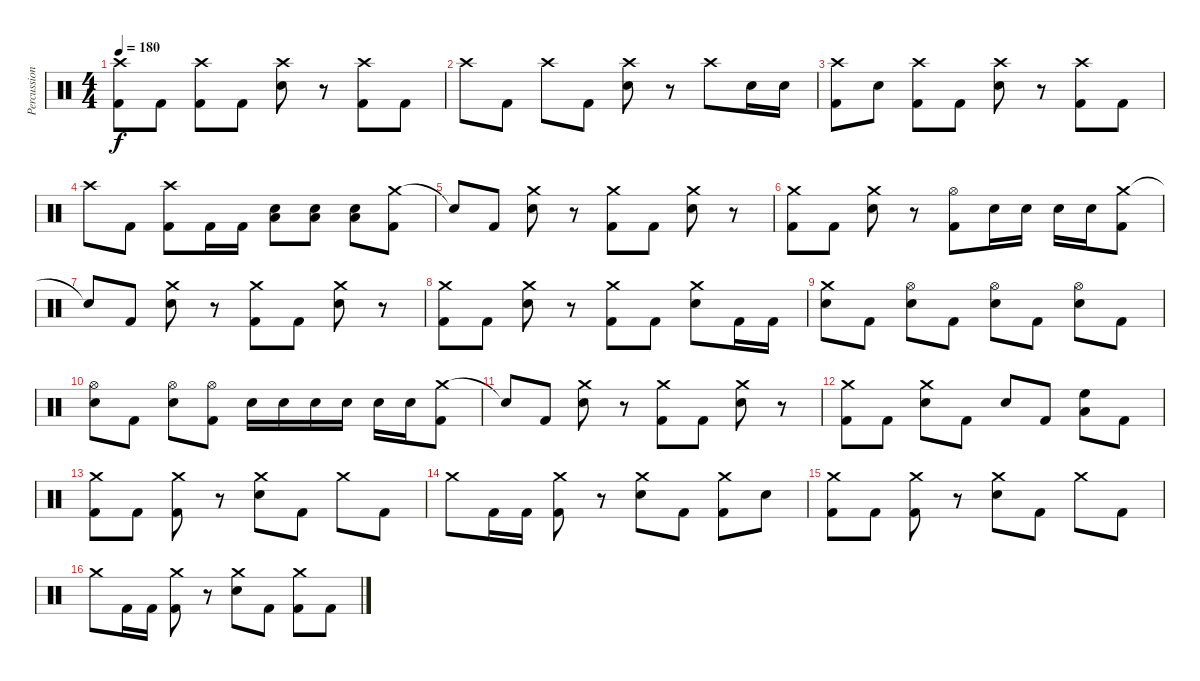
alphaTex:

\track ("Percussion" "Percussion") {instrument percussion}
\staff {score}
\articulation defaults
\ts (4 4)
\tempo 180
\clef neutral
\ks c
("Crash high (hit)" "Kick (hit) 2").8{dy f} "Kick (hit) 2".8 ("Crash high (hit)" "Kick (hit) 2").8 "Kick (hit) 2".8 ("Crash high (hit)" "Snare (hit) 2").8 r.8 ("Crash high (hit)" "Kick (hit) 2").8 "Kick (hit) 2".8 |
"Crash high (hit)".8 "Kick (hit) 2".8 "Crash high (hit)".8 "Kick (hit) 2".8 ("Crash high (hit)" "Snare (hit) 2").8 r.8 "Crash high (hit)".8 "Snare (hit) 2".16 "Snare (hit) 2".16 |
("Crash high (hit)" "Kick (hit) 2").8 "Snare (hit) 2".8 ("Crash high (hit)" "Kick (hit) 2").8 "Kick (hit) 2".8 ("Crash high (hit)" "Snare (hit) 2").8 r.8 ("Crash high (hit)" "Kick (hit) 2").8 "Kick (hit) 2".8 |
"Crash high (hit)".8 "Kick (hit) 2".8 ("Crash high (hit)" "Kick (hit) 2").8 "Kick (hit) 2".16 "Kick (hit) 2".16 ("Low Floor Tom (hit)" "Snare (hit) 2").8 ("Low Floor Tom (hit)" "Snare (hit) 2").8 ("Low Floor Tom (hit)" "Snare (hit) 2").8 ("Crash medium (hit)" "Kick (hit) 2").8 |
"Snare (hit)"{t}.8 "Kick (hit) 2".8 ("Crash medium (hit)" "Snare (hit) 2").8 r.8 ("Crash medium (hit)" "Kick (hit) 2").8 "Kick (hit) 2".8 ("Crash medium (hit)" "Snare (hit) 2").8 r.8 |
("Crash medium (hit)" "Kick (hit) 2").8 "Kick (hit) 2".8 ("Crash medium (hit)" "Snare (hit) 2").8 r.8 ("Hi-Hat (open)" "Kick (hit) 2").8 "Snare (hit) 2".16 "Snare (hit) 2".16 "Snare (hit) 2".16 "Snare (hit) 2".16 ("Crash medium (hit)" "Kick (hit) 2").8 |
"Snare (hit)"{t}.8 "Kick (hit) 2".8 ("Crash medium (hit)" "Snare (hit) 2").8 r.8 ("Crash medium (hit)" "Kick (hit) 2").8 "Kick (hit) 2".8 ("Crash medium (hit)" "Snare (hit) 2").8 r.8 |
("Crash medium (hit)" "Kick (hit) 2").8 "Kick (hit) 2".8 ("Crash medium (hit)" "Snare (hit) 2").8 r.8 ("Crash medium (hit)" "Kick (hit) 2").8 "Kick (hit) 2".8 ("Crash medium (hit)" "Snare (hit) 2").8 "Kick (hit) 2".16 "Kick (hit) 2".16 |
("Crash medium (hit)" "Snare (hit) 2").8 "Kick (hit) 2".8 ("Hi-Hat (open)" "Snare (hit) 2").8 "Kick (hit) 2".8 ("Hi-Hat (open)" "Snare (hit) 2").8 "Kick (hit) 2".8 ("Hi-Hat (open)" "Snare (hit) 2").8 "Kick (hit) 2".8 |
("Hi-Hat (open)" "Snare (hit) 2").8 "Kick (hit) 2".8 ("Hi-Hat (open)" "Snare (hit) 2").8 ("Hi-Hat (open)" "Kick (hit) 2").8 "Snare (hit) 2".16 "Snare (hit) 2".16 "Snare (hit) 2".16 "Snare (hit) 2".16 "Snare (hit) 2".16 "Snare (hit) 2".16 ("Crash medium (hit)" "Kick (hit) 2").8 |
"Snare (hit)"{t}.8 "Kick (hit) 2".8 ("Crash medium (hit)" "Snare (hit) 2").8 r.8 ("Crash medium (hit)" "Kick (hit) 2").8 "Kick (hit) 2".8 ("Crash medium (hit)" "Snare (hit) 2").8 r.8 |
("Crash medium (hit)" "Kick (hit) 2").8 "Kick (hit) 2".8 ("Crash medium (hit)" "Snare (hit) 2").8 "Kick (hit) 2".8 "Snare (hit) 2".8 "Kick (hit) 2".8 ("High Floor Tom (hit)" "Low Floor Tom (hit)").8 "Kick (hit) 2".8 |
("Crash medium (hit)" "Kick (hit) 2").8 "Kick (hit) 2".8 ("Crash medium (hit)" "Kick (hit) 2").8 r.8 ("Crash medium (hit)" "Snare (hit) 2").8 "Kick (hit) 2".8 "Crash medium (hit)".8 "Kick (hit) 2".8 |
"Crash medium (hit)".8 "Kick (hit) 2".16 "Kick (hit) 2".16 ("Crash medium (hit)" "Kick (hit) 2").8 r.8 ("Crash medium (hit)" "Snare (hit) 2").8 "Kick (hit) 2".8 ("Crash medium (hit)" "Kick (hit) 2").8 "Snare (hit) 2".8 |
("Crash medium (hit)" "Kick (hit) 2").8 "Kick (hit) 2".8 ("Crash medium (hit)" "Kick (hit) 2").8 r.8 ("Crash medium (hit)" "Snare (hit) 2").8 "Kick (hit) 2".8 "Crash medium (hit)".8 "Kick (hit) 2".8 |
"Crash medium (hit)".8 "Kick (hit) 2".16 "Kick (hit) 2".16 ("Crash medium (hit)" "Kick (hit) 2").8 r.8 ("Crash medium (hit)" "Snare (hit) 2").8 "Kick (hit) 2".8 ("Crash medium (hit)" "Kick (hit) 2").8 "Kick (hit) 2".8
